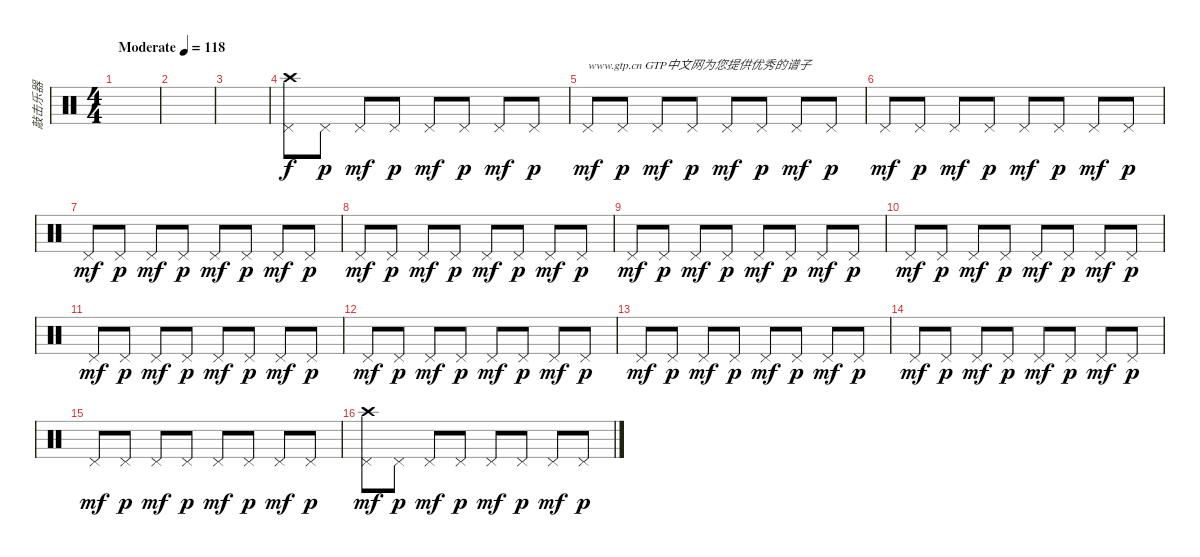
\track ("敲击乐器" "敲击乐器") {instrument percussion}
\staff {score}
\articulation defaults
\ts (4 4)
\tempo (118 "Moderate")
\clef neutral
\ks c
|
|
|
("Crash high (hit)" "Pedal Hi-Hat (hit)").8 "Pedal Hi-Hat (hit)".8{dy p} "Pedal Hi-Hat (hit)".8{dy mf} "Pedal Hi-Hat (hit)".8{dy p} "Pedal Hi-Hat (hit)".8{dy mf} "Pedal Hi-Hat (hit)".8{dy p} "Pedal Hi-Hat (hit)".8{dy mf} "Pedal Hi-Hat (hit)".8{dy p} |
"Pedal Hi-Hat (hit)".8{txt "www.gtp.cn GTP中文网为您提供优秀的谱子" dy mf} "Pedal Hi-Hat (hit)".8{dy p} "Pedal Hi-Hat (hit)".8{dy mf} "Pedal Hi-Hat (hit)".8{dy p} "Pedal Hi-Hat (hit)".8{dy mf} "Pedal Hi-Hat (hit)".8{dy p} "Pedal Hi-Hat (hit)".8{dy mf} "Pedal Hi-Hat (hit)".8{dy p} |
"Pedal Hi-Hat (hit)".8{dy mf} "Pedal Hi-Hat (hit)".8{dy p} "Pedal Hi-Hat (hit)".8{dy mf} "Pedal Hi-Hat (hit)".8{dy p} "Pedal Hi-Hat (hit)".8{dy mf} "Pedal Hi-Hat (hit)".8{dy p} "Pedal Hi-Hat (hit)".8{dy mf} "Pedal Hi-Hat (hit)".8{dy p} |
"Pedal Hi-Hat (hit)".8{dy mf} "Pedal Hi-Hat (hit)".8{dy p} "Pedal Hi-Hat (hit)".8{dy mf} "Pedal Hi-Hat (hit)".8{dy p} "Pedal Hi-Hat (hit)".8{dy mf} "Pedal Hi-Hat (hit)".8{dy p} "Pedal Hi-Hat (hit)".8{dy mf} "Pedal Hi-Hat (hit)".8{dy p} |
"Pedal Hi-Hat (hit)".8{dy mf} "Pedal Hi-Hat (hit)".8{dy p} "Pedal Hi-Hat (hit)".8{dy mf} "Pedal Hi-Hat (hit)".8{dy p} "Pedal Hi-Hat (hit)".8{dy mf} "Pedal Hi-Hat (hit)".8{dy p} "Pedal Hi-Hat (hit)".8{dy mf} "Pedal Hi-Hat (hit)".8{dy p} |
"Pedal Hi-Hat (hit)".8{dy mf} "Pedal Hi-Hat (hit)".8{dy p} "Pedal Hi-Hat (hit)".8{dy mf} "Pedal Hi-Hat (hit)".8{dy p} "Pedal Hi-Hat (hit)".8{dy mf} "Pedal Hi-Hat (hit)".8{dy p} "Pedal Hi-Hat (hit)".8{dy mf} "Pedal Hi-Hat (hit)".8{dy p} |
"Pedal Hi-Hat (hit)".8{dy mf} "Pedal Hi-Hat (hit)".8{dy p} "Pedal Hi-Hat (hit)".8{dy mf} "Pedal Hi-Hat (hit)".8{dy p} "Pedal Hi-Hat (hit)".8{dy mf} "Pedal Hi-Hat (hit)".8{dy p} "Pedal Hi-Hat (hit)".8{dy mf} "Pedal Hi-Hat (hit)".8{dy p} |
"Pedal Hi-Hat (hit)".8{dy mf} "Pedal Hi-Hat (hit)".8{dy p} "Pedal Hi-Hat (hit)".8{dy mf} "Pedal Hi-Hat (hit)".8{dy p} "Pedal Hi-Hat (hit)".8{dy mf} "Pedal Hi-Hat (hit)".8{dy p} "Pedal Hi-Hat (hit)".8{dy mf} "Pedal Hi-Hat (hit)".8{dy p} |
"Pedal Hi-Hat (hit)".8{dy mf} "Pedal Hi-Hat (hit)".8{dy p} "Pedal Hi-Hat (hit)".8{dy mf} "Pedal Hi-Hat (hit)".8{dy p} "Pedal Hi-Hat (hit)".8{dy mf} "Pedal Hi-Hat (hit)".8{dy p} "Pedal Hi-Hat (hit)".8{dy mf} "Pedal Hi-Hat (hit)".8{dy p} |
"Pedal Hi-Hat (hit)".8{dy mf} "Pedal Hi-Hat (hit)".8{dy p} "Pedal Hi-Hat (hit)".8{dy mf} "Pedal Hi-Hat (hit)".8{dy p} "Pedal Hi-Hat (hit)".8{dy mf} "Pedal Hi-Hat (hit)".8{dy p} "Pedal Hi-Hat (hit)".8{dy mf} "Pedal Hi-Hat (hit)".8{dy p} |
"Pedal Hi-Hat (hit)".8{dy mf} "Pedal Hi-Hat (hit)".8{dy p} "Pedal Hi-Hat (hit)".8{dy mf} "Pedal Hi-Hat (hit)".8{dy p} "Pedal Hi-Hat (hit)".8{dy mf} "Pedal Hi-Hat (hit)".8{dy p} "Pedal Hi-Hat (hit)".8{dy mf} "Pedal Hi-Hat (hit)".8{dy p} |
"Pedal Hi-Hat (hit)".8{dy mf} "Pedal Hi-Hat (hit)".8{dy p} "Pedal Hi-Hat (hit)".8{dy mf} "Pedal Hi-Hat (hit)".8{dy p} "Pedal Hi-Hat (hit)".8{dy mf} "Pedal Hi-Hat (hit)".8{dy p} "Pedal Hi-Hat (hit)".8{dy mf} "Pedal Hi-Hat (hit)".8{dy p} |
("Crash high (hit)" "Pedal Hi-Hat (hit)").8{dy mf} "Pedal Hi-Hat (hit)".8{dy p} "Pedal Hi-Hat (hit)".8{dy mf} "Pedal Hi-Hat (hit)".8{dy p} "Pedal Hi-Hat (hit)".8{dy mf} "Pedal Hi-Hat (hit)".8{dy p} "Pedal Hi-Hat (hit)".8{dy mf} "Pedal Hi-Hat (hit)".8{dy p}
